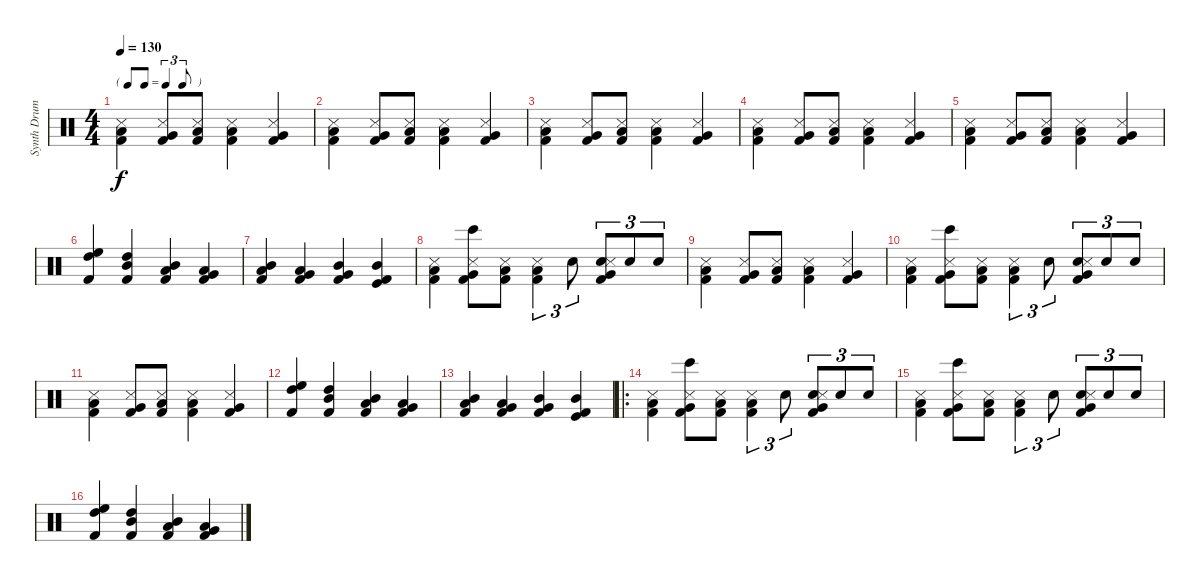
\track ("Synth Drums (Alan Wilder)" "Synth Drum") {instrument percussion}
\staff {score}
\articulation defaults
\ts (4 4)
\tf triplet8th
\tempo 130
\clef neutral
\ks c
("Low Floor Tom (hit)" "Kick (hit) 2" "Snare (side stick) 3").4{dy f} ("Very Low Tom (hit)" "Kick (hit) 2" "Snare (side stick) 3").8 ("Low Floor Tom (hit)" "Kick (hit) 2" "Snare (side stick) 3").8 ("Low Floor Tom (hit)" "Kick (hit) 2" "Snare (side stick) 3").4 ("Very Low Tom (hit)" "Kick (hit) 2" "Snare (side stick) 3").4 |
("Low Floor Tom (hit)" "Kick (hit) 2" "Snare (side stick) 3").4 ("Very Low Tom (hit)" "Kick (hit) 2" "Snare (side stick) 3").8 ("Low Floor Tom (hit)" "Kick (hit) 2" "Snare (side stick) 3").8 ("Low Floor Tom (hit)" "Kick (hit) 2" "Snare (side stick) 3").4 ("Very Low Tom (hit)" "Kick (hit) 2" "Snare (side stick) 3").4 |
("Low Floor Tom (hit)" "Kick (hit) 2" "Snare (side stick) 3").4 ("Very Low Tom (hit)" "Kick (hit) 2" "Snare (side stick) 3").8 ("Low Floor Tom (hit)" "Kick (hit) 2" "Snare (side stick) 3").8 ("Low Floor Tom (hit)" "Kick (hit) 2" "Snare (side stick) 3").4 ("Very Low Tom (hit)" "Kick (hit) 2" "Snare (side stick) 3").4 |
("Low Floor Tom (hit)" "Kick (hit) 2" "Snare (side stick) 3").4 ("Very Low Tom (hit)" "Kick (hit) 2" "Snare (side stick) 3").8 ("Low Floor Tom (hit)" "Kick (hit) 2" "Snare (side stick) 3").8 ("Low Floor Tom (hit)" "Kick (hit) 2" "Snare (side stick) 3").4 ("Very Low Tom (hit)" "Kick (hit) 2" "Snare (side stick) 3").4 |
("Low Floor Tom (hit)" "Kick (hit) 2" "Snare (side stick) 3").4 ("Very Low Tom (hit)" "Kick (hit) 2" "Snare (side stick) 3").8 ("Low Floor Tom (hit)" "Kick (hit) 2" "Snare (side stick) 3").8 ("Low Floor Tom (hit)" "Kick (hit) 2" "Snare (side stick) 3").4 ("Very Low Tom (hit)" "Kick (hit) 2" "Snare (side stick) 3").4 |
("High Floor Tom (hit)" "High Tom (hit)" "Kick (hit) 2").4 ("High Tom (hit)" "Mid Tom (hit)" "Kick (hit) 2").4 ("Mid Tom (hit)" "Low Tom (hit)" "Kick (hit) 2").4 ("Low Tom (hit)" "Very Low Tom (hit)" "Kick (hit) 2").4 |
("Mid Tom (hit)" "Low Tom (hit)" "Kick (hit) 2").4 ("Low Tom (hit)" "Very Low Tom (hit)" "Kick (hit) 2").4 ("Very Low Tom (hit)" "Mid Tom (hit)" "Kick (hit) 2").4 ("Mid Tom (hit)" "Kick (hit)" "Kick (hit) 2").4 |
("Low Floor Tom (hit)" "Kick (hit) 2" "Snare (side stick) 3").4 ("Bongo High (hit)" "Very Low Tom (hit)" "Kick (hit) 2" "Snare (side stick) 3").8 ("Low Floor Tom (hit)" "Kick (hit) 2" "Snare (side stick) 3").8 ("Low Floor Tom (hit)" "Kick (hit) 2" "Snare (side stick) 3").4{tu (3 2)} "Snare (hit) 2".8{tu (3 2)} ("Snare (hit) 2" "Very Low Tom (hit)" "Kick (hit) 2" "Snare (side stick) 3").8{tu (3 2)} "Snare (hit) 2".8{tu (3 2)} "Snare (hit) 2".8{tu (3 2)} |
("Low Floor Tom (hit)" "Kick (hit) 2" "Snare (side stick) 3").4 ("Very Low Tom (hit)" "Kick (hit) 2" "Snare (side stick) 3").8 ("Low Floor Tom (hit)" "Kick (hit) 2" "Snare (side stick) 3").8 ("Low Floor Tom (hit)" "Kick (hit) 2" "Snare (side stick) 3").4 ("Very Low Tom (hit)" "Kick (hit) 2" "Snare (side stick) 3").4 |
("Low Floor Tom (hit)" "Kick (hit) 2" "Snare (side stick) 3").4 ("Bongo High (hit)" "Very Low Tom (hit)" "Kick (hit) 2" "Snare (side stick) 3").8 ("Low Floor Tom (hit)" "Kick (hit) 2" "Snare (side stick) 3").8 ("Low Floor Tom (hit)" "Kick (hit) 2" "Snare (side stick) 3").4{tu (3 2)} "Snare (hit) 2".8{tu (3 2)} ("Snare (hit) 2" "Very Low Tom (hit)" "Kick (hit) 2" "Snare (side stick) 3").8{tu (3 2)} "Snare (hit) 2".8{tu (3 2)} "Snare (hit) 2".8{tu (3 2)} |
("Low Floor Tom (hit)" "Kick (hit) 2" "Snare (side stick) 3").4 ("Very Low Tom (hit)" "Kick (hit) 2" "Snare (side stick) 3").8 ("Low Floor Tom (hit)" "Kick (hit) 2" "Snare (side stick) 3").8 ("Low Floor Tom (hit)" "Kick (hit) 2" "Snare (side stick) 3").4 ("Very Low Tom (hit)" "Kick (hit) 2" "Snare (side stick) 3").4 |
("High Floor Tom (hit)" "High Tom (hit)" "Kick (hit) 2").4 ("High Tom (hit)" "Mid Tom (hit)" "Kick (hit) 2").4 ("Mid Tom (hit)" "Low Tom (hit)" "Kick (hit) 2").4 ("Low Tom (hit)" "Very Low Tom (hit)" "Kick (hit) 2").4 |
("Mid Tom (hit)" "Low Tom (hit)" "Kick (hit) 2").4 ("Low Tom (hit)" "Very Low Tom (hit)" "Kick (hit) 2").4 ("Very Low Tom (hit)" "Mid Tom (hit)" "Kick (hit) 2").4 ("Mid Tom (hit)" "Kick (hit)" "Kick (hit) 2").4 |
\ro
("Low Floor Tom (hit)" "Kick (hit) 2" "Snare (side stick) 3").4 ("Bongo High (hit)" "Very Low Tom (hit)" "Kick (hit) 2" "Snare (side stick) 3").8 ("Low Floor Tom (hit)" "Kick (hit) 2" "Snare (side stick) 3").8 ("Low Floor Tom (hit)" "Kick (hit) 2" "Snare (side stick) 3").4{tu (3 2)} "Snare (hit) 2".8{tu (3 2)} ("Snare (hit) 2" "Very Low Tom (hit)" "Kick (hit) 2" "Snare (side stick) 3").8{tu (3 2)} "Snare (hit) 2".8{tu (3 2)} "Snare (hit) 2".8{tu (3 2)} |
("Low Floor Tom (hit)" "Kick (hit) 2" "Snare (side stick) 3").4 ("Bongo High (hit)" "Very Low Tom (hit)" "Kick (hit) 2" "Snare (side stick) 3").8 ("Low Floor Tom (hit)" "Kick (hit) 2" "Snare (side stick) 3").8 ("Low Floor Tom (hit)" "Kick (hit) 2" "Snare (side stick) 3").4{tu (3 2)} "Snare (hit) 2".8{tu (3 2)} ("Snare (hit) 2" "Very Low Tom (hit)" "Kick (hit) 2" "Snare (side stick) 3").8{tu (3 2)} "Snare (hit) 2".8{tu (3 2)} "Snare (hit) 2".8{tu (3 2)} |
("High Floor Tom (hit)" "High Tom (hit)" "Kick (hit) 2").4 ("High Tom (hit)" "Mid Tom (hit)" "Kick (hit) 2").4 ("Mid Tom (hit)" "Low Tom (hit)" "Kick (hit) 2").4 ("Low Tom (hit)" "Very Low Tom (hit)" "Kick (hit) 2").4
